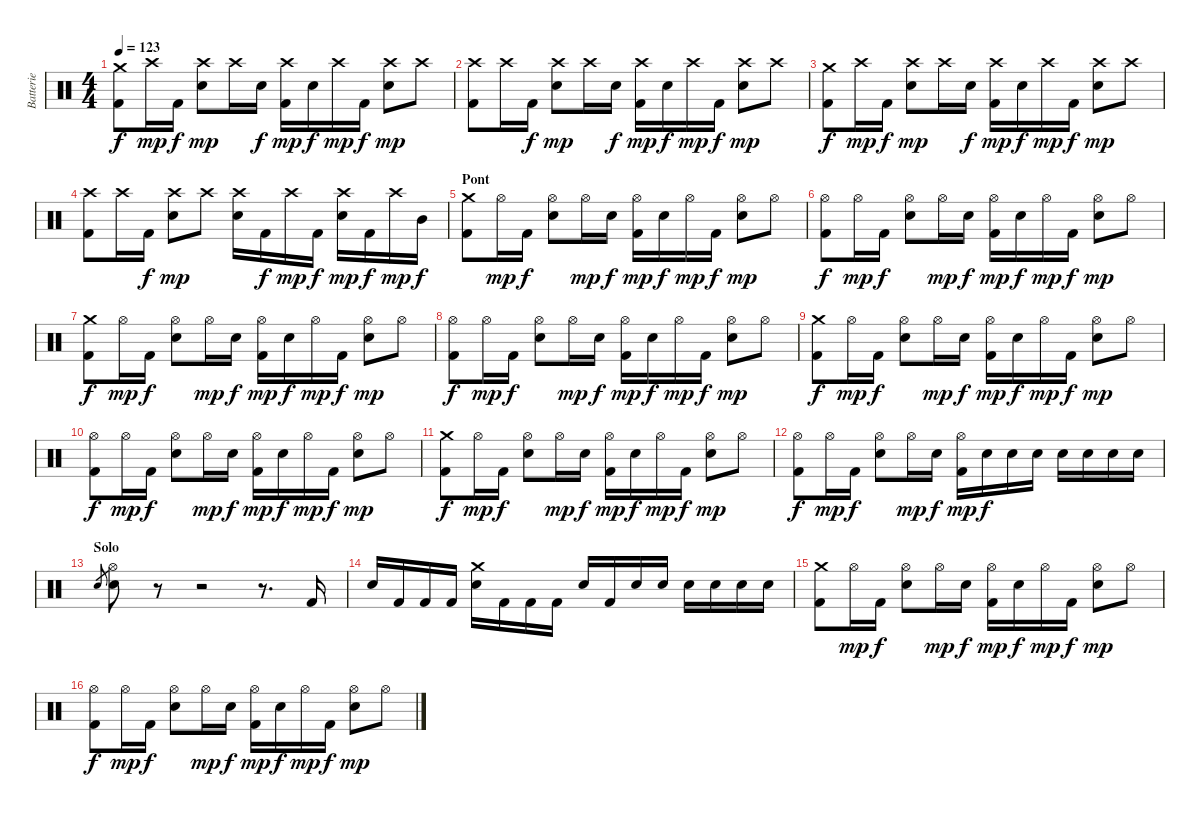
\track ("Batterie" "Batterie") {instrument percussion}
\staff {score}
\articulation defaults
\ts (4 4)
\tempo 123
\clef neutral
\ks c
("Crash medium (hit)" "Kick (hit) 2").8{dy f} "Crash high (hit)".16{dy mp} "Kick (hit) 2".16{dy f} ("Crash high (hit)" "Snare (hit) 2").8{dy mp} "Crash high (hit)".16 "Snare (hit) 2".16{dy f} ("Crash high (hit)" "Kick (hit) 2").16{dy mp} "Snare (hit) 2".16{dy f} "Crash high (hit)".16{dy mp} "Kick (hit) 2".16{dy f} ("Crash high (hit)" "Snare (hit) 2").8{dy mp} "Crash high (hit)".8 |
("Crash high (hit)" "Kick (hit) 2").8 "Crash high (hit)".16 "Kick (hit) 2".16{dy f} ("Crash high (hit)" "Snare (hit) 2").8{dy mp} "Crash high (hit)".16 "Snare (hit) 2".16{dy f} ("Crash high (hit)" "Kick (hit) 2").16{dy mp} "Snare (hit) 2".16{dy f} "Crash high (hit)".16{dy mp} "Kick (hit) 2".16{dy f} ("Crash high (hit)" "Snare (hit) 2").8{dy mp} "Crash high (hit)".8 |
("Crash medium (hit)" "Kick (hit) 2").8{dy f} "Crash high (hit)".16{dy mp} "Kick (hit) 2".16{dy f} ("Crash high (hit)" "Snare (hit) 2").8{dy mp} "Crash high (hit)".16 "Snare (hit) 2".16{dy f} ("Crash high (hit)" "Kick (hit) 2").16{dy mp} "Snare (hit) 2".16{dy f} "Crash high (hit)".16{dy mp} "Kick (hit) 2".16{dy f} ("Crash high (hit)" "Snare (hit) 2").8{dy mp} "Crash high (hit)".8 |
("Crash high (hit)" "Kick (hit) 2").8 "Crash high (hit)".16 "Kick (hit) 2".16{dy f} ("Crash high (hit)" "Snare (hit) 2").8{dy mp} "Crash high (hit)".8 ("Crash high (hit)" "Snare (hit) 2").16 "Kick (hit) 2".16{dy f} "Crash high (hit)".16{dy mp} "Kick (hit) 2".16{dy f} ("Crash high (hit)" "Snare (hit) 2").16{dy mp} "Kick (hit) 2".16{dy f} "Crash high (hit)".16{dy mp} "Mid Tom (hit)".16{dy f} |
\section ("" "Pont")
("Crash medium (hit)" "Kick (hit) 2").8 "Hi-Hat (open)".16{dy mp} "Kick (hit) 2".16{dy f} ("Hi-Hat (open)" "Snare (hit) 2").8 "Hi-Hat (open)".16{dy mp} "Snare (hit) 2".16{dy f} ("Hi-Hat (open)" "Kick (hit) 2").16{dy mp} "Snare (hit) 2".16{dy f} "Hi-Hat (open)".16{dy mp} "Kick (hit) 2".16{dy f} ("Hi-Hat (open)" "Snare (hit) 2").8{dy mp} "Hi-Hat (open)".8 |
("Hi-Hat (open)" "Kick (hit) 2").8{dy f} "Hi-Hat (open)".16{dy mp} "Kick (hit) 2".16{dy f} ("Hi-Hat (open)" "Snare (hit) 2").8 "Hi-Hat (open)".16{dy mp} "Snare (hit) 2".16{dy f} ("Hi-Hat (open)" "Kick (hit) 2").16{dy mp} "Snare (hit) 2".16{dy f} "Hi-Hat (open)".16{dy mp} "Kick (hit) 2".16{dy f} ("Hi-Hat (open)" "Snare (hit) 2").8{dy mp} "Hi-Hat (open)".8 |
("Crash medium (hit)" "Kick (hit) 2").8{dy f} "Hi-Hat (open)".16{dy mp} "Kick (hit) 2".16{dy f} ("Hi-Hat (open)" "Snare (hit) 2").8 "Hi-Hat (open)".16{dy mp} "Snare (hit) 2".16{dy f} ("Hi-Hat (open)" "Kick (hit) 2").16{dy mp} "Snare (hit) 2".16{dy f} "Hi-Hat (open)".16{dy mp} "Kick (hit) 2".16{dy f} ("Hi-Hat (open)" "Snare (hit) 2").8{dy mp} "Hi-Hat (open)".8 |
("Hi-Hat (open)" "Kick (hit) 2").8{dy f} "Hi-Hat (open)".16{dy mp} "Kick (hit) 2".16{dy f} ("Hi-Hat (open)" "Snare (hit) 2").8 "Hi-Hat (open)".16{dy mp} "Snare (hit) 2".16{dy f} ("Hi-Hat (open)" "Kick (hit) 2").16{dy mp} "Snare (hit) 2".16{dy f} "Hi-Hat (open)".16{dy mp} "Kick (hit) 2".16{dy f} ("Hi-Hat (open)" "Snare (hit) 2").8{dy mp} "Hi-Hat (open)".8 |
("Crash medium (hit)" "Kick (hit) 2").8{dy f} "Hi-Hat (open)".16{dy mp} "Kick (hit) 2".16{dy f} ("Hi-Hat (open)" "Snare (hit) 2").8 "Hi-Hat (open)".16{dy mp} "Snare (hit) 2".16{dy f} ("Hi-Hat (open)" "Kick (hit) 2").16{dy mp} "Snare (hit) 2".16{dy f} "Hi-Hat (open)".16{dy mp} "Kick (hit) 2".16{dy f} ("Hi-Hat (open)" "Snare (hit) 2").8{dy mp} "Hi-Hat (open)".8 |
("Hi-Hat (open)" "Kick (hit) 2").8{dy f} "Hi-Hat (open)".16{dy mp} "Kick (hit) 2".16{dy f} ("Hi-Hat (open)" "Snare (hit) 2").8 "Hi-Hat (open)".16{dy mp} "Snare (hit) 2".16{dy f} ("Hi-Hat (open)" "Kick (hit) 2").16{dy mp} "Snare (hit) 2".16{dy f} "Hi-Hat (open)".16{dy mp} "Kick (hit) 2".16{dy f} ("Hi-Hat (open)" "Snare (hit) 2").8{dy mp} "Hi-Hat (open)".8 |
("Crash medium (hit)" "Kick (hit) 2").8{dy f} "Hi-Hat (open)".16{dy mp} "Kick (hit) 2".16{dy f} ("Hi-Hat (open)" "Snare (hit) 2").8 "Hi-Hat (open)".16{dy mp} "Snare (hit) 2".16{dy f} ("Hi-Hat (open)" "Kick (hit) 2").16{dy mp} "Snare (hit) 2".16{dy f} "Hi-Hat (open)".16{dy mp} "Kick (hit) 2".16{dy f} ("Hi-Hat (open)" "Snare (hit) 2").8{dy mp} "Hi-Hat (open)".8 |
("Hi-Hat (open)" "Kick (hit) 2").8{dy f} "Hi-Hat (open)".16{dy mp} "Kick (hit) 2".16{dy f} ("Hi-Hat (open)" "Snare (hit) 2").8 "Hi-Hat (open)".16{dy mp} "Snare (hit) 2".16{dy f} ("Hi-Hat (open)" "Kick (hit) 2").16{dy mp} "Snare (hit) 2".16{dy f} "Snare (hit) 2".16 "Snare (hit) 2".16 "Snare (hit) 2".16 "Snare (hit) 2".16 "Snare (hit) 2".16 "Snare (hit) 2".16 |
\section ("" "Solo")
"Snare (hit) 2".8{gr} ("Hi-Hat (open)" "Snare (hit) 2").8 r.8 r.2 r.8{d} "Kick (hit) 2".16 |
"Snare (hit) 2".16 "Kick (hit) 2".16 "Kick (hit) 2".16 "Kick (hit) 2".16 ("Crash medium (hit)" "Snare (hit) 2").16 "Kick (hit) 2".16 "Kick (hit) 2".16 "Kick (hit) 2".16 "Snare (hit) 2".16 "Kick (hit) 2".16 "Snare (hit) 2".16 "Snare (hit) 2".16 "Snare (hit) 2".16 "Snare (hit) 2".16 "Snare (hit) 2".16 "Snare (hit) 2".16 |
("Crash medium (hit)" "Kick (hit) 2").8 "Hi-Hat (open)".16{dy mp} "Kick (hit) 2".16{dy f} ("Hi-Hat (open)" "Snare (hit) 2").8 "Hi-Hat (open)".16{dy mp} "Snare (hit) 2".16{dy f} ("Hi-Hat (open)" "Kick (hit) 2").16{dy mp} "Snare (hit) 2".16{dy f} "Hi-Hat (open)".16{dy mp} "Kick (hit) 2".16{dy f} ("Hi-Hat (open)" "Snare (hit) 2").8{dy mp} "Hi-Hat (open)".8 |
("Hi-Hat (open)" "Kick (hit) 2").8{dy f} "Hi-Hat (open)".16{dy mp} "Kick (hit) 2".16{dy f} ("Hi-Hat (open)" "Snare (hit) 2").8 "Hi-Hat (open)".16{dy mp} "Snare (hit) 2".16{dy f} ("Hi-Hat (open)" "Kick (hit) 2").16{dy mp} "Snare (hit) 2".16{dy f} "Hi-Hat (open)".16{dy mp} "Kick (hit) 2".16{dy f} ("Hi-Hat (open)" "Snare (hit) 2").8{dy mp} "Hi-Hat (open)".8
